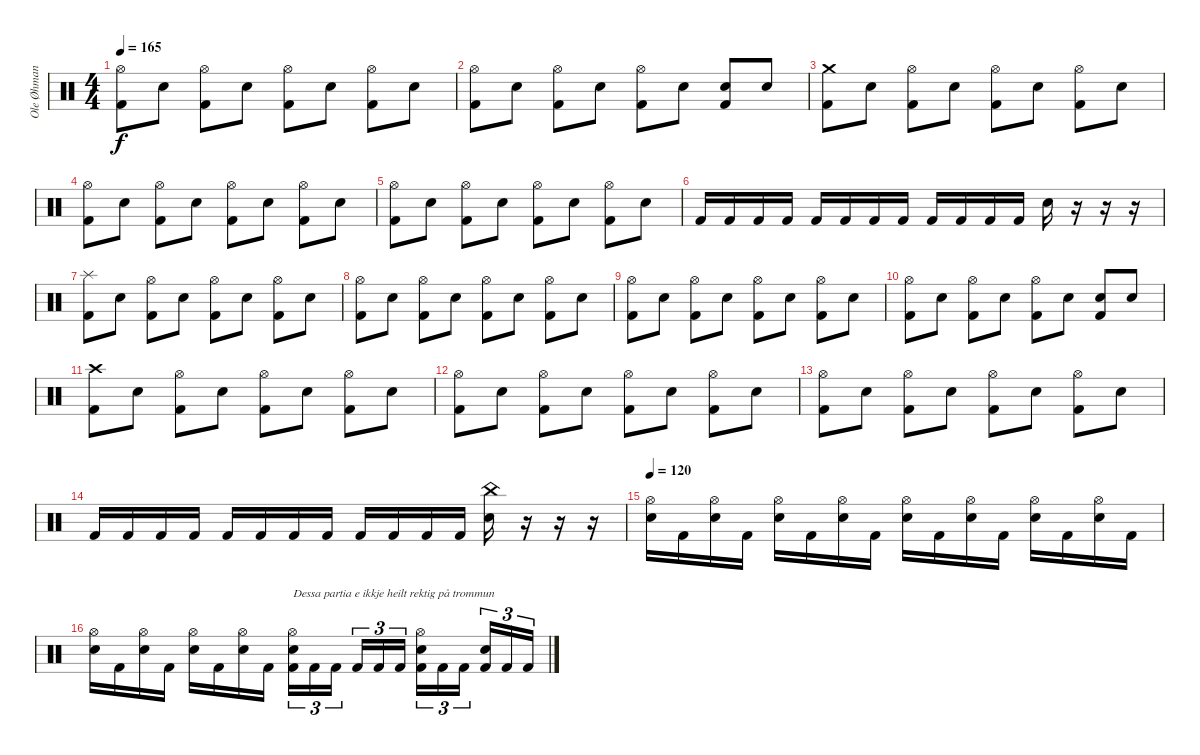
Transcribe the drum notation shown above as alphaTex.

\track ("Ole Øhman (Trommur)" "Ole Øhman ") {instrument percussion}
\staff {score}
\articulation defaults
\ts (4 4)
\tempo 165
\clef neutral
\ks c
("Hi-Hat (open)" "Kick (hit) 2").8{dy f} "Electric Snare (hit)".8 ("Hi-Hat (open)" "Kick (hit) 2").8 "Electric Snare (hit)".8 ("Hi-Hat (open)" "Kick (hit) 2").8 "Electric Snare (hit)".8 ("Hi-Hat (open)" "Kick (hit) 2").8 "Electric Snare (hit)".8 |
("Hi-Hat (open)" "Kick (hit) 2").8 "Electric Snare (hit)".8 ("Hi-Hat (open)" "Kick (hit) 2").8 "Electric Snare (hit)".8 ("Hi-Hat (open)" "Kick (hit) 2").8 "Electric Snare (hit)".8 ("Electric Snare (hit)" "Kick (hit) 2").8 "Electric Snare (hit)".8 |
("Crash medium (hit)" "Kick (hit) 2").8 "Electric Snare (hit)".8 ("Hi-Hat (open)" "Kick (hit) 2").8 "Electric Snare (hit)".8 ("Hi-Hat (open)" "Kick (hit) 2").8 "Electric Snare (hit)".8 ("Hi-Hat (open)" "Kick (hit) 2").8 "Electric Snare (hit)".8 |
("Hi-Hat (open)" "Kick (hit) 2").8 "Electric Snare (hit)".8 ("Hi-Hat (open)" "Kick (hit) 2").8 "Electric Snare (hit)".8 ("Hi-Hat (open)" "Kick (hit) 2").8 "Electric Snare (hit)".8 ("Hi-Hat (open)" "Kick (hit) 2").8 "Electric Snare (hit)".8 |
("Hi-Hat (open)" "Kick (hit) 2").8 "Electric Snare (hit)".8 ("Hi-Hat (open)" "Kick (hit) 2").8 "Electric Snare (hit)".8 ("Hi-Hat (open)" "Kick (hit) 2").8 "Electric Snare (hit)".8 ("Hi-Hat (open)" "Kick (hit) 2").8 "Electric Snare (hit)".8 |
"Kick (hit) 2".16 "Kick (hit) 2".16 "Kick (hit) 2".16 "Kick (hit) 2".16 "Kick (hit) 2".16 "Kick (hit) 2".16 "Kick (hit) 2".16 "Kick (hit) 2".16 "Kick (hit) 2".16 "Kick (hit) 2".16 "Kick (hit) 2".16 "Kick (hit) 2".16 "Electric Snare (hit)".16 r.16 r.16 r.16 |
("Splash (hit)" "Kick (hit) 2").8 "Electric Snare (hit)".8 ("Hi-Hat (open)" "Kick (hit) 2").8 "Electric Snare (hit)".8 ("Hi-Hat (open)" "Kick (hit) 2").8 "Electric Snare (hit)".8 ("Hi-Hat (open)" "Kick (hit) 2").8 "Electric Snare (hit)".8 |
("Hi-Hat (open)" "Kick (hit) 2").8 "Electric Snare (hit)".8 ("Hi-Hat (open)" "Kick (hit) 2").8 "Electric Snare (hit)".8 ("Hi-Hat (open)" "Kick (hit) 2").8 "Electric Snare (hit)".8 ("Hi-Hat (open)" "Kick (hit) 2").8 "Electric Snare (hit)".8 |
("Hi-Hat (open)" "Kick (hit) 2").8 "Electric Snare (hit)".8 ("Hi-Hat (open)" "Kick (hit) 2").8 "Electric Snare (hit)".8 ("Hi-Hat (open)" "Kick (hit) 2").8 "Electric Snare (hit)".8 ("Hi-Hat (open)" "Kick (hit) 2").8 "Electric Snare (hit)".8 |
("Hi-Hat (open)" "Kick (hit) 2").8 "Electric Snare (hit)".8 ("Hi-Hat (open)" "Kick (hit) 2").8 "Electric Snare (hit)".8 ("Hi-Hat (open)" "Kick (hit) 2").8 "Electric Snare (hit)".8 ("Electric Snare (hit)" "Kick (hit) 2").8 "Electric Snare (hit)".8 |
("Crash high (hit)" "Kick (hit) 2").8 "Electric Snare (hit)".8 ("Hi-Hat (open)" "Kick (hit) 2").8 "Electric Snare (hit)".8 ("Hi-Hat (open)" "Kick (hit) 2").8 "Electric Snare (hit)".8 ("Hi-Hat (open)" "Kick (hit) 2").8 "Electric Snare (hit)".8 |
("Hi-Hat (open)" "Kick (hit) 2").8 "Electric Snare (hit)".8 ("Hi-Hat (open)" "Kick (hit) 2").8 "Electric Snare (hit)".8 ("Hi-Hat (open)" "Kick (hit) 2").8 "Electric Snare (hit)".8 ("Hi-Hat (open)" "Kick (hit) 2").8 "Electric Snare (hit)".8 |
("Hi-Hat (open)" "Kick (hit) 2").8 "Electric Snare (hit)".8 ("Hi-Hat (open)" "Kick (hit) 2").8 "Electric Snare (hit)".8 ("Hi-Hat (open)" "Kick (hit) 2").8 "Electric Snare (hit)".8 ("Hi-Hat (open)" "Kick (hit) 2").8 "Electric Snare (hit)".8 |
"Kick (hit) 2".16 "Kick (hit) 2".16 "Kick (hit) 2".16 "Kick (hit) 2".16 "Kick (hit) 2".16 "Kick (hit) 2".16 "Kick (hit) 2".16 "Kick (hit) 2".16 "Kick (hit) 2".16 "Kick (hit) 2".16 "Kick (hit) 2".16 "Kick (hit) 2".16 ("China (hit)" "Electric Snare (hit)").16 r.16 r.16 r.16 |
\tempo 120
("Hi-Hat (open)" "Electric Snare (hit)").16 "Kick (hit) 2".16 ("Hi-Hat (open)" "Electric Snare (hit)").16 "Kick (hit) 2".16 ("Hi-Hat (open)" "Electric Snare (hit)").16 "Kick (hit) 2".16 ("Hi-Hat (open)" "Electric Snare (hit)").16 "Kick (hit) 2".16 ("Hi-Hat (open)" "Electric Snare (hit)").16 "Kick (hit) 2".16 ("Hi-Hat (open)" "Electric Snare (hit)").16 "Kick (hit) 2".16 ("Hi-Hat (open)" "Electric Snare (hit)").16 "Kick (hit) 2".16 ("Hi-Hat (open)" "Electric Snare (hit)").16 "Kick (hit) 2".16 |
("Hi-Hat (open)" "Electric Snare (hit)").16 "Kick (hit) 2".16 ("Hi-Hat (open)" "Electric Snare (hit)").16 "Kick (hit) 2".16 ("Hi-Hat (open)" "Electric Snare (hit)").16 "Kick (hit) 2".16 ("Hi-Hat (open)" "Electric Snare (hit)").16 "Kick (hit) 2".16 ("Hi-Hat (open)" "Electric Snare (hit)" "Kick (hit) 2").16{tu (3 2) txt "Dessa partia e ikkje heilt rektig på trommun"} "Kick (hit) 2".16{tu (3 2)} "Kick (hit) 2".16{tu (3 2)} "Kick (hit) 2".16{tu (3 2)} "Kick (hit) 2".16{tu (3 2)} "Kick (hit) 2".16{tu (3 2)} ("Hi-Hat (open)" "Electric Snare (hit)" "Kick (hit) 2").16{tu (3 2)} "Kick (hit) 2".16{tu (3 2)} "Kick (hit) 2".16{tu (3 2)} ("Electric Snare (hit)" "Kick (hit) 2").16{tu (3 2)} "Kick (hit) 2".16{tu (3 2)} "Kick (hit) 2".16{tu (3 2)}
